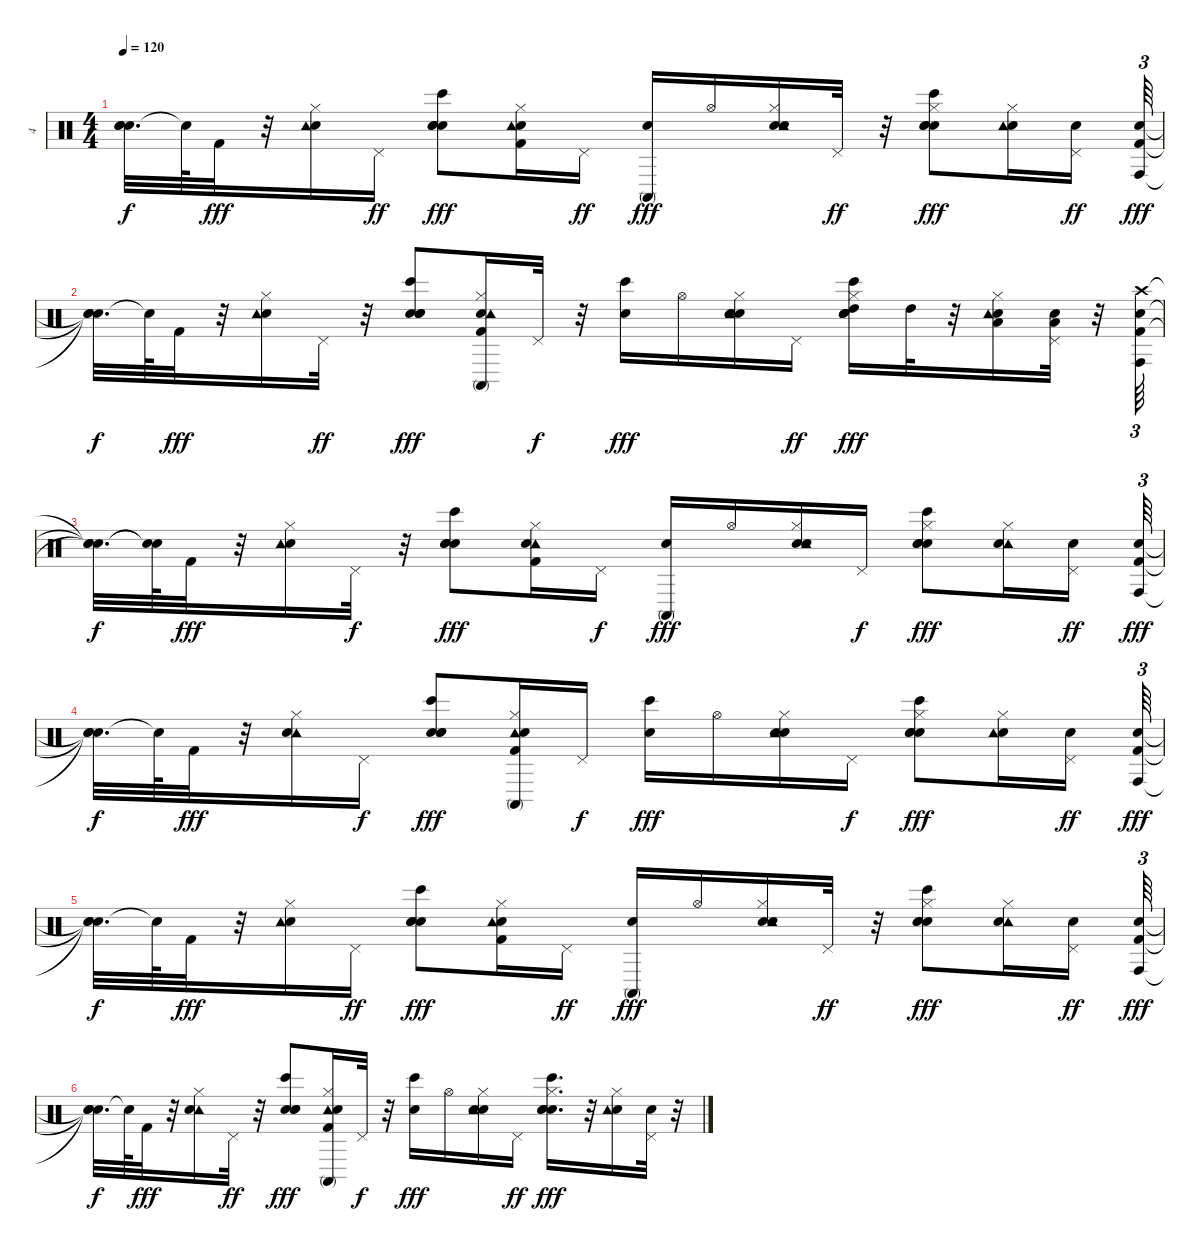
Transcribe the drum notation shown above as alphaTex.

\track ("4" "4") {instrument percussion}
\staff {score}
\articulation defaults
\ts (4 4)
\tempo 120
\clef neutral
\ks c
("Snare (hit)"{t} "Snare (hit)"{t} "Snare (hit)"{t}).32{d dy f} "Snare (hit)"{t}.64 "Kick (hit) 2".32{dy fff} r.32 ("Hi-Hat (closed)" "Hand Clap (hit)" "Tambourine (hit)").16 "Pedal Hi-Hat (hit)".16{dy ff} ("Snare (hit) 2" "Hand Clap (hit)" "Electric Snare (hit)" "Bongo High (hit)").8{dy fff} ("Hi-Hat (closed)" "Hand Clap (hit)" "Kick (hit) 2" "Tambourine (hit)").16 "Pedal Hi-Hat (hit)".16{dy ff} ("Hand Clap (hit)" "Conga high (mute)").16{dy fff} "Hi-Hat (open)".16 ("Snare (hit) 2" "Hi-Hat (closed)" "Hand Clap (hit)" "Tambourine (hit)").16 "Pedal Hi-Hat (hit)".32{dy ff} r.32 ("Snare (hit) 2" "Hand Clap (hit)" "Electric Snare (hit)" "Hi-Hat (closed)" "Bongo High (hit)").8{dy fff} ("Hi-Hat (closed)" "Hand Clap (hit)" "Tambourine (hit)").16 ("Pedal Hi-Hat (hit)" "Snare (hit) 2").16{dy ff} ("Hand Clap (hit)" "Kick (hit) 2" "Conga high (hit)").64{tu (3 2) dy fff} |
("Snare (hit)"{t} "Snare (hit)"{t} "Snare (hit)"{t}).32{d dy f} "Snare (hit)"{t}.64 "Kick (hit) 2".32{dy fff} r.32 ("Hi-Hat (closed)" "Hand Clap (hit)" "Tambourine (hit)").16 "Pedal Hi-Hat (hit)".32{dy ff} r.32 ("Snare (hit) 2" "Hand Clap (hit)" "Electric Snare (hit)" "Bongo High (hit)").8{dy fff} ("Hi-Hat (closed)" "Hand Clap (hit)" "Kick (hit) 2" "Tambourine (hit)" "Conga high (mute)").16 "Pedal Hi-Hat (hit)".32{dy f} r.32 ("Hand Clap (hit)" "Bongo High (hit)").16{dy fff} "Hi-Hat (open)".16 ("Snare (hit) 2" "Hi-Hat (closed)" "Hand Clap (hit)" "Electric Snare (hit)" "Tambourine (hit)").16 "Pedal Hi-Hat (hit)".16{dy ff} ("Snare (hit) 2" "Hand Clap (hit)" "High Tom (hit)" "Electric Snare (hit)" "Hi-Hat (closed)" "Bongo High (hit)").16{dy fff} "High Tom (hit)".32 r.32 ("Hi-Hat (closed)" "Hand Clap (hit)" "Low Tom (hit)" "Tambourine (hit)").16 ("Pedal Hi-Hat (hit)" "Snare (hit) 2" "Low Tom (hit)").32 r.32 ("Crash high (hit)" "Kick (hit) 2" "Hand Clap (hit)" "Conga high (hit)").64{tu (3 2)} |
("Snare (hit)"{t} "Snare (hit)"{t} "Snare (hit)"{t}).32{d dy f} ("Snare (hit)"{t} "Snare (hit)"{t}).64 "Kick (hit) 2".32{dy fff} r.32 ("Hi-Hat (closed)" "Hand Clap (hit)" "Tambourine (hit)").16 "Pedal Hi-Hat (hit)".32{dy f} r.32 ("Snare (hit) 2" "Hand Clap (hit)" "Bongo High (hit)" "Electric Snare (hit)").8{dy fff} ("Hi-Hat (closed)" "Tambourine (hit)" "Kick (hit) 2" "Hand Clap (hit)").16 "Pedal Hi-Hat (hit)".16{dy f} ("Hand Clap (hit)" "Conga high (mute)").16{dy fff} "Hi-Hat (open)".16 ("Hi-Hat (closed)" "Snare (hit) 2" "Tambourine (hit)" "Hand Clap (hit)").16 "Pedal Hi-Hat (hit)".16{dy f} ("Snare (hit) 2" "Hi-Hat (closed)" "Bongo High (hit)" "Electric Snare (hit)" "Hand Clap (hit)").8{dy fff} ("Hi-Hat (closed)" "Tambourine (hit)" "Hand Clap (hit)").16 ("Pedal Hi-Hat (hit)" "Snare (hit) 2").16{dy ff} ("Kick (hit) 2" "Hand Clap (hit)" "Conga high (hit)").64{tu (3 2) dy fff} |
("Snare (hit)"{t} "Snare (hit)"{t} "Snare (hit)"{t}).32{d dy f} "Snare (hit)"{t}.64 "Kick (hit) 2".32{dy fff} r.32 ("Hi-Hat (closed)" "Tambourine (hit)" "Hand Clap (hit)").16 "Pedal Hi-Hat (hit)".16{dy f} ("Snare (hit) 2" "Electric Snare (hit)" "Bongo High (hit)" "Hand Clap (hit)").8{dy fff} ("Hi-Hat (closed)" "Kick (hit) 2" "Tambourine (hit)" "Hand Clap (hit)" "Conga high (mute)").16 "Pedal Hi-Hat (hit)".16{dy f} ("Hand Clap (hit)" "Bongo High (hit)").16{dy fff} "Hi-Hat (open)".16 ("Snare (hit) 2" "Hi-Hat (closed)" "Hand Clap (hit)" "Tambourine (hit)").16 "Pedal Hi-Hat (hit)".16{dy f} ("Snare (hit) 2" "Hi-Hat (closed)" "Bongo High (hit)" "Electric Snare (hit)" "Hand Clap (hit)").8{dy fff} ("Hi-Hat (closed)" "Hand Clap (hit)" "Tambourine (hit)").16 ("Pedal Hi-Hat (hit)" "Snare (hit) 2").16{dy ff} ("Hand Clap (hit)" "Kick (hit) 2" "Conga high (hit)").64{tu (3 2) dy fff} |
("Snare (hit)"{t} "Snare (hit)"{t} "Snare (hit)"{t}).32{d dy f} "Snare (hit)"{t}.64 "Kick (hit) 2".32{dy fff} r.32 ("Hi-Hat (closed)" "Hand Clap (hit)" "Tambourine (hit)").16 "Pedal Hi-Hat (hit)".16{dy ff} ("Snare (hit) 2" "Hand Clap (hit)" "Electric Snare (hit)" "Bongo High (hit)").8{dy fff} ("Hi-Hat (closed)" "Hand Clap (hit)" "Kick (hit) 2" "Tambourine (hit)").16 "Pedal Hi-Hat (hit)".16{dy ff} ("Hand Clap (hit)" "Conga high (mute)").16{dy fff} "Hi-Hat (open)".16 ("Snare (hit) 2" "Hi-Hat (closed)" "Hand Clap (hit)" "Tambourine (hit)").16 "Pedal Hi-Hat (hit)".32{dy ff} r.32 ("Snare (hit) 2" "Electric Snare (hit)" "Hi-Hat (closed)" "Bongo High (hit)" "Hand Clap (hit)").8{dy fff} ("Hi-Hat (closed)" "Tambourine (hit)" "Hand Clap (hit)").16 ("Pedal Hi-Hat (hit)" "Snare (hit) 2").16{dy ff} ("Kick (hit) 2" "Hand Clap (hit)" "Conga high (hit)").64{tu (3 2) dy fff} |
("Snare (hit)"{t} "Snare (hit)"{t} "Snare (hit)"{t}).32{d dy f} "Snare (hit)"{t}.64 "Kick (hit) 2".32{dy fff} r.32 ("Hi-Hat (closed)" "Tambourine (hit)" "Hand Clap (hit)").16 "Pedal Hi-Hat (hit)".32{dy ff} r.32 ("Snare (hit) 2" "Electric Snare (hit)" "Bongo High (hit)" "Hand Clap (hit)").8{dy fff} ("Hi-Hat (closed)" "Kick (hit) 2" "Tambourine (hit)" "Hand Clap (hit)" "Conga high (mute)").16 "Pedal Hi-Hat (hit)".32{dy f} r.32 ("Hand Clap (hit)" "Bongo High (hit)").16{dy fff} "Hi-Hat (open)".16 ("Snare (hit) 2" "Hi-Hat (closed)" "Hand Clap (hit)" "Tambourine (hit)").16 "Pedal Hi-Hat (hit)".16{dy ff} ("Snare (hit) 2" "Electric Snare (hit)" "Hi-Hat (closed)" "Bongo High (hit)" "Hand Clap (hit)").16{d dy fff} r.32 ("Hi-Hat (closed)" "Hand Clap (hit)" "Tambourine (hit)").16 ("Pedal Hi-Hat (hit)" "Snare (hit) 2").32 r.32
